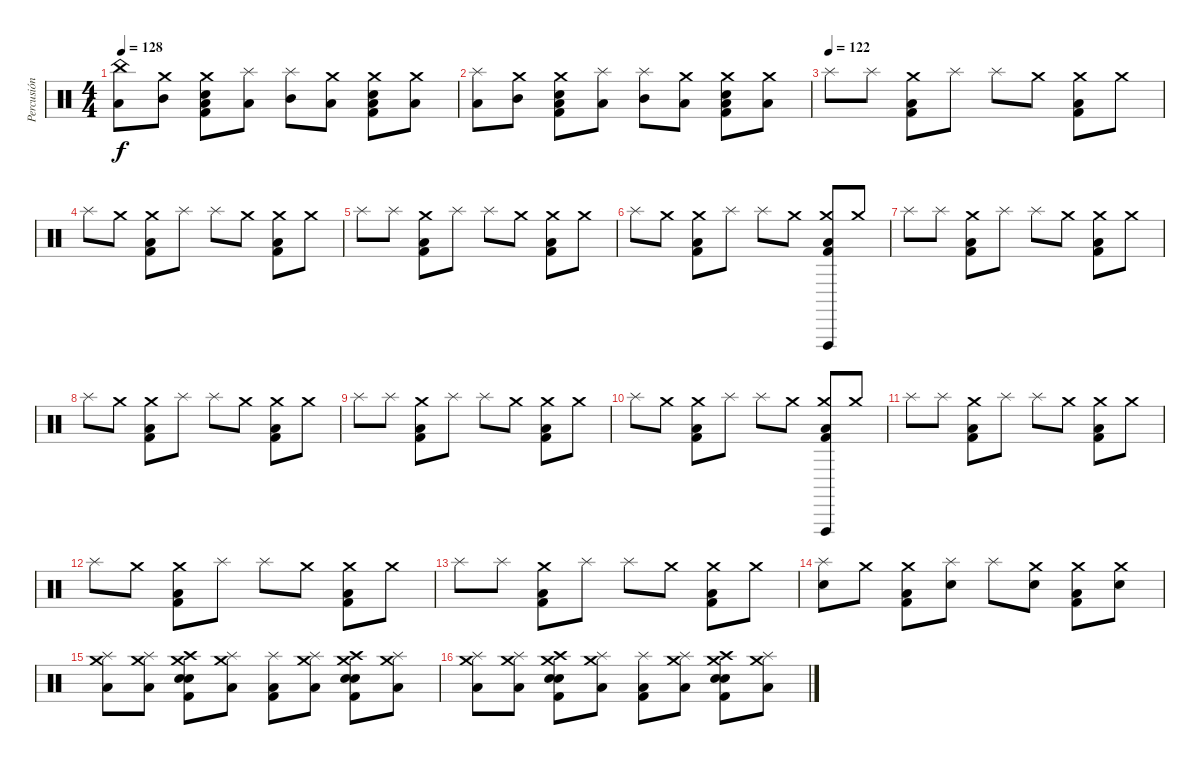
\track ("Percusión" "Percusión") {instrument percussion}
\staff {score}
\articulation defaults
\ts (4 4)
\tempo 128
\clef neutral
\ks c
("China (hit)" "Low Floor Tom (hit)").8{dy f} ("Crash medium (hit)" "Mid Tom (hit)").8 ("Crash medium (hit)" "Low Floor Tom (hit)" "Electric Snare (hit)" "Kick (hit) 2").8 ("Splash (hit)" "Low Floor Tom (hit)").8 ("Splash (hit)" "Mid Tom (hit)").8 ("Crash medium (hit)" "Low Floor Tom (hit)").8 ("Crash medium (hit)" "Low Floor Tom (hit)" "Electric Snare (hit)" "Kick (hit) 2").8 ("Crash medium (hit)" "Low Floor Tom (hit)").8 |
("Splash (hit)" "Low Floor Tom (hit)").8 ("Crash medium (hit)" "Mid Tom (hit)").8 ("Crash medium (hit)" "Low Floor Tom (hit)" "Electric Snare (hit)" "Kick (hit) 2").8 ("Splash (hit)" "Low Floor Tom (hit)").8 ("Splash (hit)" "Mid Tom (hit)").8 ("Crash medium (hit)" "Low Floor Tom (hit)").8 ("Crash medium (hit)" "Low Floor Tom (hit)" "Electric Snare (hit)" "Kick (hit) 2").8 ("Crash medium (hit)" "Low Floor Tom (hit)").8 |
\tempo (122)
"Splash (hit)".8 "Splash (hit)".8 ("Crash medium (hit)" "Low Floor Tom (hit)" "Kick (hit) 2").8 "Splash (hit)".8 "Splash (hit)".8 "Crash medium (hit)".8 ("Crash medium (hit)" "Low Floor Tom (hit)" "Kick (hit) 2").8 "Crash medium (hit)".8 |
"Splash (hit)".8 "Crash medium (hit)".8 ("Crash medium (hit)" "Low Floor Tom (hit)" "Kick (hit) 2").8 "Splash (hit)".8 "Splash (hit)".8 "Crash medium (hit)".8 ("Crash medium (hit)" "Low Floor Tom (hit)" "Kick (hit) 2").8 "Crash medium (hit)".8 |
"Splash (hit)".8 "Splash (hit)".8 ("Crash medium (hit)" "Low Floor Tom (hit)" "Kick (hit) 2").8 "Splash (hit)".8 "Splash (hit)".8 "Crash medium (hit)".8 ("Crash medium (hit)" "Low Floor Tom (hit)" "Kick (hit) 2").8 "Crash medium (hit)".8 |
"Splash (hit)".8 "Crash medium (hit)".8 ("Crash medium (hit)" "Low Floor Tom (hit)" "Kick (hit) 2").8 "Splash (hit)".8 "Splash (hit)".8 "Crash medium (hit)".8 ("Crash medium (hit)" "Low Floor Tom (hit)" "Kick (hit) 2" "Vibraslap (hit)").8 "Crash medium (hit)".8 |
"Splash (hit)".8 "Splash (hit)".8 ("Crash medium (hit)" "Low Floor Tom (hit)" "Kick (hit) 2").8 "Splash (hit)".8 "Splash (hit)".8 "Crash medium (hit)".8 ("Crash medium (hit)" "Low Floor Tom (hit)" "Kick (hit) 2").8 "Crash medium (hit)".8 |
"Splash (hit)".8 "Crash medium (hit)".8 ("Crash medium (hit)" "Low Floor Tom (hit)" "Kick (hit) 2").8 "Splash (hit)".8 "Splash (hit)".8 "Crash medium (hit)".8 ("Crash medium (hit)" "Low Floor Tom (hit)" "Kick (hit) 2").8 "Crash medium (hit)".8 |
"Splash (hit)".8 "Splash (hit)".8 ("Crash medium (hit)" "Low Floor Tom (hit)" "Kick (hit) 2").8 "Splash (hit)".8 "Splash (hit)".8 "Crash medium (hit)".8 ("Crash medium (hit)" "Low Floor Tom (hit)" "Kick (hit) 2").8 "Crash medium (hit)".8 |
"Splash (hit)".8 "Crash medium (hit)".8 ("Crash medium (hit)" "Low Floor Tom (hit)" "Kick (hit) 2").8 "Splash (hit)".8 "Splash (hit)".8 "Crash medium (hit)".8 ("Crash medium (hit)" "Low Floor Tom (hit)" "Kick (hit) 2" "Vibraslap (hit)").8 "Crash medium (hit)".8 |
"Splash (hit)".8 "Splash (hit)".8 ("Crash medium (hit)" "Low Floor Tom (hit)" "Kick (hit) 2").8 "Splash (hit)".8 "Splash (hit)".8 "Crash medium (hit)".8 ("Crash medium (hit)" "Low Floor Tom (hit)" "Kick (hit) 2").8 "Crash medium (hit)".8 |
"Splash (hit)".8 "Crash medium (hit)".8 ("Crash medium (hit)" "Low Floor Tom (hit)" "Kick (hit) 2").8 "Splash (hit)".8 "Splash (hit)".8 "Crash medium (hit)".8 ("Crash medium (hit)" "Low Floor Tom (hit)" "Kick (hit) 2").8 "Crash medium (hit)".8 |
"Splash (hit)".8 "Splash (hit)".8 ("Crash medium (hit)" "Low Floor Tom (hit)" "Kick (hit) 2").8 "Splash (hit)".8 "Splash (hit)".8 "Crash medium (hit)".8 ("Crash medium (hit)" "Low Floor Tom (hit)" "Kick (hit) 2").8 "Crash medium (hit)".8 |
("Splash (hit)" "Snare (hit) 2").8 "Crash medium (hit)".8 ("Crash medium (hit)" "Low Floor Tom (hit)" "Kick (hit) 2").8 ("Splash (hit)" "Snare (hit) 2").8 "Splash (hit)".8 ("Crash medium (hit)" "Snare (hit) 2").8 ("Crash medium (hit)" "Low Floor Tom (hit)" "Kick (hit) 2").8 ("Crash medium (hit)" "Snare (hit) 2").8 |
("Splash (hit)" "Crash medium (hit)" "Low Floor Tom (hit)").8 ("Splash (hit)" "Crash medium (hit)" "Low Floor Tom (hit)").8 ("Crash high (hit)" "Crash medium (hit)" "Kick (hit) 2" "Electric Snare (hit)" "Snare (hit) 2").8 ("Splash (hit)" "Crash medium (hit)" "Low Floor Tom (hit)").8 ("Splash (hit)" "Kick (hit) 2" "Low Floor Tom (hit)").8 ("Splash (hit)" "Crash medium (hit)" "Low Floor Tom (hit)").8 ("Crash high (hit)" "Crash medium (hit)" "Kick (hit) 2" "Electric Snare (hit)" "Snare (hit) 2").8 ("Splash (hit)" "Crash medium (hit)" "Low Floor Tom (hit)").8 |
("Splash (hit)" "Crash medium (hit)" "Low Floor Tom (hit)").8 ("Splash (hit)" "Crash medium (hit)" "Low Floor Tom (hit)").8 ("Crash high (hit)" "Crash medium (hit)" "Kick (hit) 2" "Electric Snare (hit)" "Snare (hit) 2").8 ("Splash (hit)" "Crash medium (hit)" "Low Floor Tom (hit)").8 ("Splash (hit)" "Kick (hit) 2" "Low Floor Tom (hit)").8 ("Splash (hit)" "Crash medium (hit)" "Low Floor Tom (hit)").8 ("Crash high (hit)" "Crash medium (hit)" "Kick (hit) 2" "Electric Snare (hit)" "Snare (hit) 2").8 ("Splash (hit)" "Crash medium (hit)" "Low Floor Tom (hit)").8
